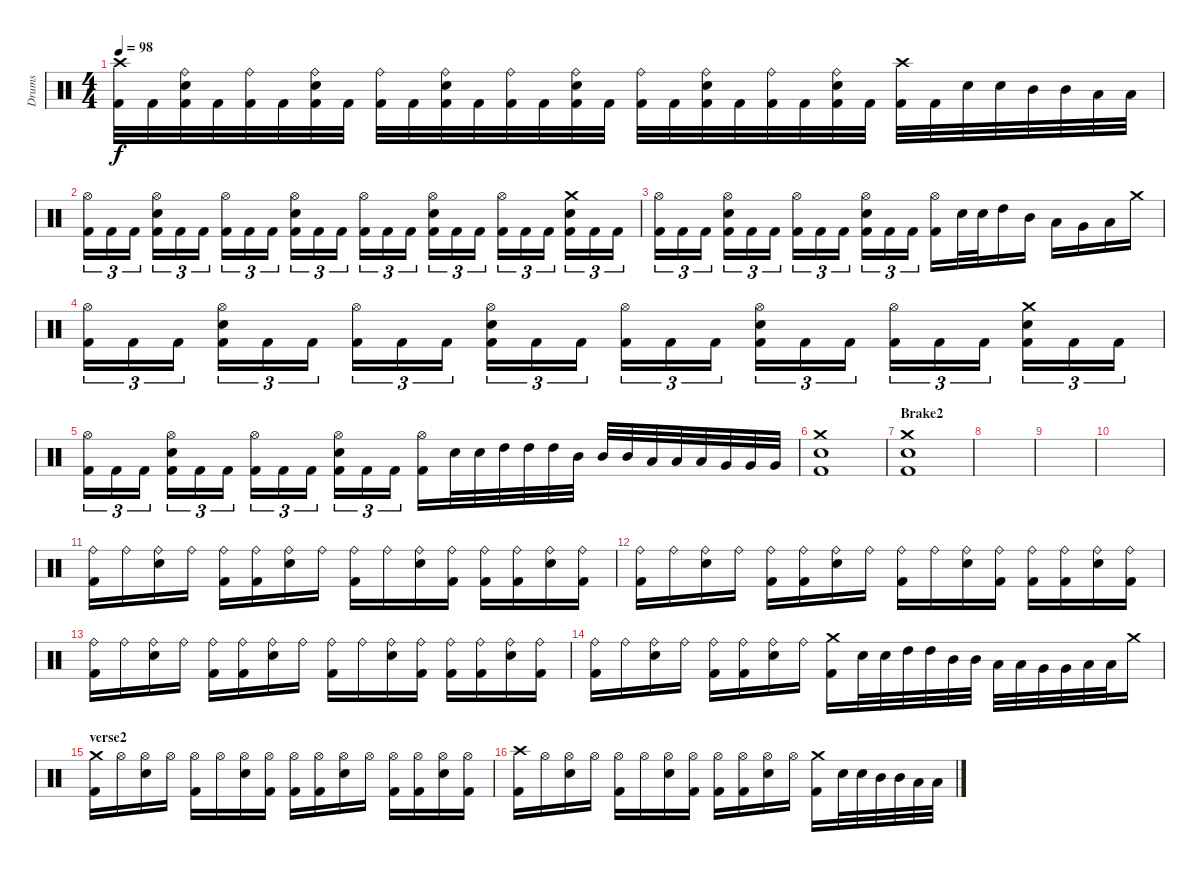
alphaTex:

\track ("Drums" "Drums") {instrument percussion}
\staff {score}
\articulation defaults
\ts (4 4)
\tempo 98
\clef neutral
\ks c
("Crash high (hit)" "Kick (hit) 2").32{dy f} "Kick (hit) 2".32 ("Ride (bell)" "Electric Snare (hit)" "Kick (hit) 2").32 "Kick (hit) 2".32 ("Ride (bell)" "Kick (hit) 2").32 "Kick (hit) 2".32 ("Ride (bell)" "Electric Snare (hit)" "Kick (hit) 2").32 "Kick (hit) 2".32 ("Ride (bell)" "Kick (hit) 2").32 "Kick (hit) 2".32 ("Ride (bell)" "Electric Snare (hit)" "Kick (hit) 2").32 "Kick (hit) 2".32 ("Ride (bell)" "Kick (hit) 2").32 "Kick (hit) 2".32 ("Ride (bell)" "Electric Snare (hit)" "Kick (hit) 2").32 "Kick (hit) 2".32 ("Ride (bell)" "Kick (hit) 2").32 "Kick (hit) 2".32 ("Ride (bell)" "Electric Snare (hit)" "Kick (hit) 2").32 "Kick (hit) 2".32 ("Ride (bell)" "Kick (hit) 2").32 "Kick (hit) 2".32 ("Ride (bell)" "Electric Snare (hit)" "Kick (hit) 2").32 "Kick (hit) 2".32 ("Crash high (hit)" "Kick (hit) 2").32 "Kick (hit) 2".32 "Electric Snare (hit)".32 "Electric Snare (hit)".32 "Mid Tom (hit)".32 "Mid Tom (hit)".32 "Low Tom (hit)".32 "Low Tom (hit)".32 |
("Hi-Hat (open)" "Kick (hit) 2").16{tu (3 2)} "Kick (hit) 2".16{tu (3 2)} "Kick (hit) 2".16{tu (3 2)} ("Hi-Hat (open)" "Electric Snare (hit)" "Kick (hit) 2").16{tu (3 2)} "Kick (hit) 2".16{tu (3 2)} "Kick (hit) 2".16{tu (3 2)} ("Hi-Hat (open)" "Kick (hit) 2").16{tu (3 2)} "Kick (hit) 2".16{tu (3 2)} "Kick (hit) 2".16{tu (3 2)} ("Hi-Hat (open)" "Electric Snare (hit)" "Kick (hit) 2").16{tu (3 2)} "Kick (hit) 2".16{tu (3 2)} "Kick (hit) 2".16{tu (3 2)} ("Hi-Hat (open)" "Kick (hit) 2").16{tu (3 2)} "Kick (hit) 2".16{tu (3 2)} "Kick (hit) 2".16{tu (3 2)} ("Hi-Hat (open)" "Electric Snare (hit)" "Kick (hit) 2").16{tu (3 2)} "Kick (hit) 2".16{tu (3 2)} "Kick (hit) 2".16{tu (3 2)} ("Hi-Hat (open)" "Kick (hit) 2").16{tu (3 2)} "Kick (hit) 2".16{tu (3 2)} "Kick (hit) 2".16{tu (3 2)} ("Crash medium (hit)" "Electric Snare (hit)" "Kick (hit) 2").16{tu (3 2)} "Kick (hit) 2".16{tu (3 2)} "Kick (hit) 2".16{tu (3 2)} |
("Hi-Hat (open)" "Kick (hit) 2").16{tu (3 2)} "Kick (hit) 2".16{tu (3 2)} "Kick (hit) 2".16{tu (3 2)} ("Hi-Hat (open)" "Electric Snare (hit)" "Kick (hit) 2").16{tu (3 2)} "Kick (hit) 2".16{tu (3 2)} "Kick (hit) 2".16{tu (3 2)} ("Hi-Hat (open)" "Kick (hit) 2").16{tu (3 2)} "Kick (hit) 2".16{tu (3 2)} "Kick (hit) 2".16{tu (3 2)} ("Hi-Hat (open)" "Electric Snare (hit)" "Kick (hit) 2").16{tu (3 2)} "Kick (hit) 2".16{tu (3 2)} "Kick (hit) 2".16{tu (3 2)} ("Hi-Hat (open)" "Kick (hit) 2").16 "Electric Snare (hit)".32 "Electric Snare (hit)".32 "High Tom (hit)".16 "Mid Tom (hit)".16 "Low Tom (hit)".16 "Very Low Tom (hit)".16 "Low Floor Tom (hit)".16 "Crash medium (hit)".16 |
("Hi-Hat (open)" "Kick (hit) 2").16{tu (3 2)} "Kick (hit) 2".16{tu (3 2)} "Kick (hit) 2".16{tu (3 2)} ("Hi-Hat (open)" "Electric Snare (hit)" "Kick (hit) 2").16{tu (3 2)} "Kick (hit) 2".16{tu (3 2)} "Kick (hit) 2".16{tu (3 2)} ("Hi-Hat (open)" "Kick (hit) 2").16{tu (3 2)} "Kick (hit) 2".16{tu (3 2)} "Kick (hit) 2".16{tu (3 2)} ("Hi-Hat (open)" "Electric Snare (hit)" "Kick (hit) 2").16{tu (3 2)} "Kick (hit) 2".16{tu (3 2)} "Kick (hit) 2".16{tu (3 2)} ("Hi-Hat (open)" "Kick (hit) 2").16{tu (3 2)} "Kick (hit) 2".16{tu (3 2)} "Kick (hit) 2".16{tu (3 2)} ("Hi-Hat (open)" "Electric Snare (hit)" "Kick (hit) 2").16{tu (3 2)} "Kick (hit) 2".16{tu (3 2)} "Kick (hit) 2".16{tu (3 2)} ("Hi-Hat (open)" "Kick (hit) 2").16{tu (3 2)} "Kick (hit) 2".16{tu (3 2)} "Kick (hit) 2".16{tu (3 2)} ("Crash medium (hit)" "Electric Snare (hit)" "Kick (hit) 2").16{tu (3 2)} "Kick (hit) 2".16{tu (3 2)} "Kick (hit) 2".16{tu (3 2)} |
("Hi-Hat (open)" "Kick (hit) 2").16{tu (3 2)} "Kick (hit) 2".16{tu (3 2)} "Kick (hit) 2".16{tu (3 2)} ("Hi-Hat (open)" "Electric Snare (hit)" "Kick (hit) 2").16{tu (3 2)} "Kick (hit) 2".16{tu (3 2)} "Kick (hit) 2".16{tu (3 2)} ("Hi-Hat (open)" "Kick (hit) 2").16{tu (3 2)} "Kick (hit) 2".16{tu (3 2)} "Kick (hit) 2".16{tu (3 2)} ("Hi-Hat (open)" "Electric Snare (hit)" "Kick (hit) 2").16{tu (3 2)} "Kick (hit) 2".16{tu (3 2)} "Kick (hit) 2".16{tu (3 2)} ("Hi-Hat (open)" "Kick (hit) 2").16 "Electric Snare (hit)".32 "Electric Snare (hit)".32 "High Tom (hit)".32 "High Tom (hit)".32 "High Tom (hit)".32 "Mid Tom (hit)".32 "Mid Tom (hit)".32 "Mid Tom (hit)".32 "Low Tom (hit)".32 "Low Tom (hit)".32 "Low Tom (hit)".32 "Very Low Tom (hit)".32 "Very Low Tom (hit)".32 "Very Low Tom (hit)".32 |
("Crash medium (hit)" "Electric Snare (hit)" "Kick (hit) 2").1 |
\section ("" "Brake2")
("Crash medium (hit)" "Electric Snare (hit)" "Kick (hit) 2").1 |
|
|
|
("Ride (bell)" "Kick (hit) 2").16 "Ride (bell)".16 ("Ride (bell)" "Electric Snare (hit)").16 "Ride (bell)".16 ("Ride (bell)" "Kick (hit) 2").16 ("Ride (bell)" "Kick (hit) 2").16 ("Ride (bell)" "Electric Snare (hit)").16 "Ride (bell)".16 ("Ride (bell)" "Kick (hit) 2").16 "Ride (bell)".16 ("Ride (bell)" "Electric Snare (hit)").16 ("Ride (bell)" "Kick (hit) 2").16 ("Ride (bell)" "Kick (hit) 2").16 ("Ride (bell)" "Kick (hit) 2").16 ("Ride (bell)" "Electric Snare (hit)").16 ("Ride (bell)" "Kick (hit) 2").16 |
("Ride (bell)" "Kick (hit) 2").16 "Ride (bell)".16 ("Ride (bell)" "Electric Snare (hit)").16 "Ride (bell)".16 ("Ride (bell)" "Kick (hit) 2").16 ("Ride (bell)" "Kick (hit) 2").16 ("Ride (bell)" "Electric Snare (hit)").16 "Ride (bell)".16 ("Ride (bell)" "Kick (hit) 2").16 "Ride (bell)".16 ("Ride (bell)" "Electric Snare (hit)").16 ("Ride (bell)" "Kick (hit) 2").16 ("Ride (bell)" "Kick (hit) 2").16 ("Ride (bell)" "Kick (hit) 2").16 ("Ride (bell)" "Electric Snare (hit)").16 ("Ride (bell)" "Kick (hit) 2").16 |
("Ride (bell)" "Kick (hit) 2").16 "Ride (bell)".16 ("Ride (bell)" "Electric Snare (hit)").16 "Ride (bell)".16 ("Ride (bell)" "Kick (hit) 2").16 ("Ride (bell)" "Kick (hit) 2").16 ("Ride (bell)" "Electric Snare (hit)").16 "Ride (bell)".16 ("Ride (bell)" "Kick (hit) 2").16 "Ride (bell)".16 ("Ride (bell)" "Electric Snare (hit)").16 ("Ride (bell)" "Kick (hit) 2").16 ("Ride (bell)" "Kick (hit) 2").16 ("Ride (bell)" "Kick (hit) 2").16 ("Ride (bell)" "Electric Snare (hit)").16 ("Ride (bell)" "Kick (hit) 2").16 |
("Ride (bell)" "Kick (hit) 2").16 "Ride (bell)".16 ("Ride (bell)" "Electric Snare (hit)").16 "Ride (bell)".16 ("Ride (bell)" "Kick (hit) 2").16 ("Ride (bell)" "Kick (hit) 2").16 ("Ride (bell)" "Electric Snare (hit)").16 "Ride (bell)".16 ("Crash medium (hit)" "Kick (hit) 2").16 "Electric Snare (hit)".32 "Electric Snare (hit)".32 "High Tom (hit)".32 "High Tom (hit)".32 "Mid Tom (hit)".32 "Mid Tom (hit)".32 "Low Tom (hit)".32 "Low Tom (hit)".32 "Very Low Tom (hit)".32 "Very Low Tom (hit)".32 "Low Floor Tom (hit)".32 "Low Floor Tom (hit)".32 "Crash medium (hit)".16 |
\section ("" "verse2")
("Crash medium (hit)" "Kick (hit) 2").16 "Hi-Hat (open)".16 ("Hi-Hat (open)" "Electric Snare (hit)").16 "Hi-Hat (open)".16 ("Hi-Hat (open)" "Kick (hit) 2").16 "Hi-Hat (open)".16 ("Hi-Hat (open)" "Electric Snare (hit)").16 ("Hi-Hat (open)" "Kick (hit) 2").16 ("Hi-Hat (open)" "Kick (hit) 2").16 ("Hi-Hat (open)" "Kick (hit) 2").16 ("Hi-Hat (open)" "Electric Snare (hit)").16 "Hi-Hat (open)".16 ("Hi-Hat (open)" "Kick (hit) 2").16 ("Hi-Hat (open)" "Kick (hit) 2").16 ("Hi-Hat (open)" "Electric Snare (hit)").16 ("Hi-Hat (open)" "Kick (hit) 2").16 |
("Crash high (hit)" "Kick (hit) 2").16 "Hi-Hat (open)".16 ("Hi-Hat (open)" "Electric Snare (hit)").16 "Hi-Hat (open)".16 ("Hi-Hat (open)" "Kick (hit) 2").16 "Hi-Hat (open)".16 ("Hi-Hat (open)" "Electric Snare (hit)").16 ("Hi-Hat (open)" "Kick (hit) 2").16 ("Hi-Hat (open)" "Kick (hit) 2").16 ("Hi-Hat (open)" "Kick (hit) 2").16 ("Hi-Hat (open)" "Electric Snare (hit)").16 "Hi-Hat (open)".16 ("Crash medium (hit)" "Kick (hit) 2").16 "Electric Snare (hit)".32 "Electric Snare (hit)".32 "Mid Tom (hit)".32 "Mid Tom (hit)".32 "Low Tom (hit)".32 "Low Tom (hit)".32
